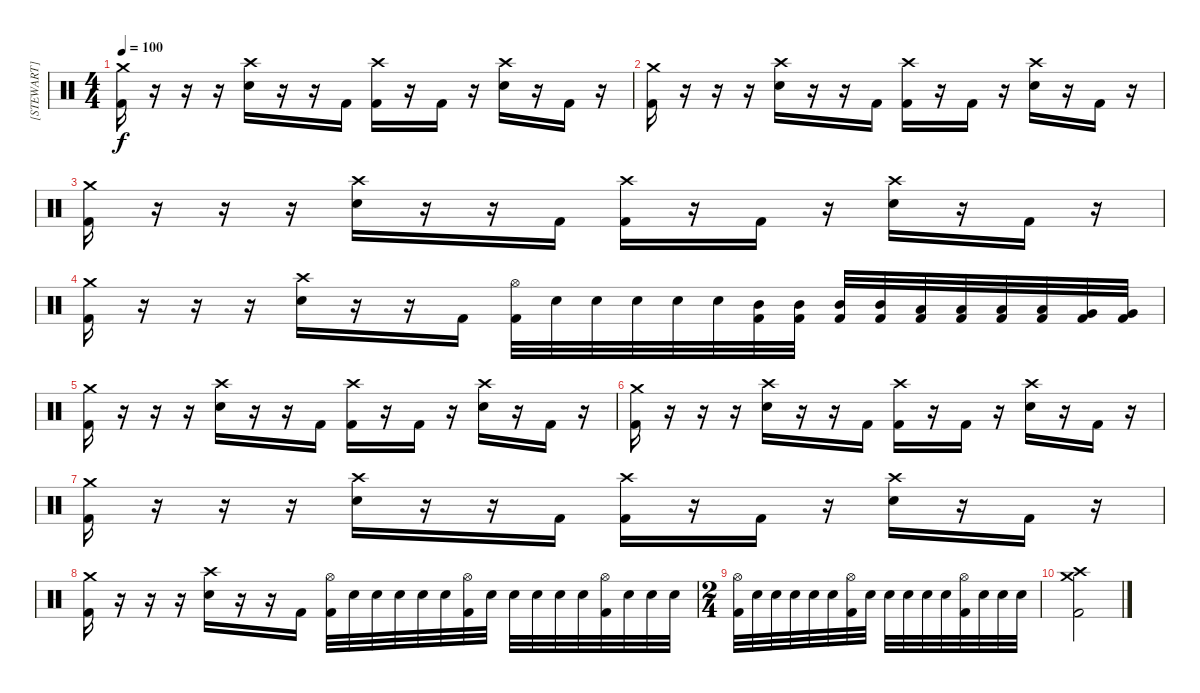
\track ("[STEWART]" "[STEWART]") {instrument percussion}
\staff {score}
\articulation defaults
\ts (4 4)
\tempo 100
\clef neutral
\ks c
("Kick (hit) 2" "Crash medium (hit)").16{dy f} r.16 r.16 r.16 ("Electric Snare (hit)" "Crash high (hit)").16 r.16 r.16 "Kick (hit) 2".16 ("Kick (hit) 2" "Crash high (hit)").16 r.16 "Kick (hit) 2".16 r.16 ("Electric Snare (hit)" "Crash high (hit)").16 r.16 "Kick (hit) 2".16 r.16 |
("Kick (hit) 2" "Crash medium (hit)").16 r.16 r.16 r.16 ("Electric Snare (hit)" "Crash high (hit)").16 r.16 r.16 "Kick (hit) 2".16 ("Kick (hit) 2" "Crash high (hit)").16 r.16 "Kick (hit) 2".16 r.16 ("Electric Snare (hit)" "Crash high (hit)").16 r.16 "Kick (hit) 2".16 r.16 |
("Kick (hit) 2" "Crash medium (hit)").16 r.16 r.16 r.16 ("Electric Snare (hit)" "Crash high (hit)").16 r.16 r.16 "Kick (hit) 2".16 ("Kick (hit) 2" "Crash high (hit)").16 r.16 "Kick (hit) 2".16 r.16 ("Electric Snare (hit)" "Crash high (hit)").16 r.16 "Kick (hit) 2".16 r.16 |
("Kick (hit) 2" "Crash medium (hit)").16 r.16 r.16 r.16 ("Electric Snare (hit)" "Crash high (hit)").16 r.16 r.16 "Kick (hit) 2".16 ("Kick (hit) 2" "Hi-Hat (open)").32 "Electric Snare (hit)".32 "Electric Snare (hit)".32 "Electric Snare (hit)".32 "Electric Snare (hit)".32 "Electric Snare (hit)".32 ("Kick (hit) 2" "Mid Tom (hit)").32 ("Kick (hit) 2" "Mid Tom (hit)").32 ("Kick (hit) 2" "Mid Tom (hit)").32 ("Kick (hit) 2" "Mid Tom (hit)").32 ("Kick (hit) 2" "Low Tom (hit)").32 ("Kick (hit) 2" "Low Tom (hit)").32 ("Kick (hit) 2" "Low Tom (hit)").32 ("Kick (hit) 2" "Low Tom (hit)").32 ("Kick (hit) 2" "Very Low Tom (hit)").32 ("Kick (hit) 2" "Very Low Tom (hit)").32 |
("Kick (hit) 2" "Crash medium (hit)").16 r.16 r.16 r.16 ("Electric Snare (hit)" "Crash high (hit)").16 r.16 r.16 "Kick (hit) 2".16 ("Kick (hit) 2" "Crash high (hit)").16 r.16 "Kick (hit) 2".16 r.16 ("Electric Snare (hit)" "Crash high (hit)").16 r.16 "Kick (hit) 2".16 r.16 |
("Kick (hit) 2" "Crash medium (hit)").16 r.16 r.16 r.16 ("Electric Snare (hit)" "Crash high (hit)").16 r.16 r.16 "Kick (hit) 2".16 ("Kick (hit) 2" "Crash high (hit)").16 r.16 "Kick (hit) 2".16 r.16 ("Electric Snare (hit)" "Crash high (hit)").16 r.16 "Kick (hit) 2".16 r.16 |
("Kick (hit) 2" "Crash medium (hit)").16 r.16 r.16 r.16 ("Electric Snare (hit)" "Crash high (hit)").16 r.16 r.16 "Kick (hit) 2".16 ("Kick (hit) 2" "Crash high (hit)").16 r.16 "Kick (hit) 2".16 r.16 ("Electric Snare (hit)" "Crash high (hit)").16 r.16 "Kick (hit) 2".16 r.16 |
("Kick (hit) 2" "Crash medium (hit)").16 r.16 r.16 r.16 ("Electric Snare (hit)" "Crash high (hit)").16 r.16 r.16 "Kick (hit) 2".16 ("Kick (hit) 2" "Hi-Hat (open)").32 "Electric Snare (hit)".32 "Electric Snare (hit)".32 "Electric Snare (hit)".32 "Electric Snare (hit)".32 "Electric Snare (hit)".32 ("Kick (hit) 2" "Hi-Hat (open)").32 "Electric Snare (hit)".32 "Electric Snare (hit)".32 "Electric Snare (hit)".32 "Electric Snare (hit)".32 "Electric Snare (hit)".32 ("Kick (hit) 2" "Hi-Hat (open)").32 "Electric Snare (hit)".32 "Electric Snare (hit)".32 "Electric Snare (hit)".32 |
\ts (2 4)
("Kick (hit) 2" "Hi-Hat (open)").32 "Electric Snare (hit)".32 "Electric Snare (hit)".32 "Electric Snare (hit)".32 "Electric Snare (hit)".32 "Electric Snare (hit)".32 ("Kick (hit) 2" "Hi-Hat (open)").32 "Electric Snare (hit)".32 "Electric Snare (hit)".32 "Electric Snare (hit)".32 "Electric Snare (hit)".32 "Electric Snare (hit)".32 ("Kick (hit) 2" "Hi-Hat (open)").32 "Electric Snare (hit)".32 "Electric Snare (hit)".32 "Electric Snare (hit)".32 |
("Crash medium (hit)" "Crash high (hit)" "Kick (hit) 2").2
